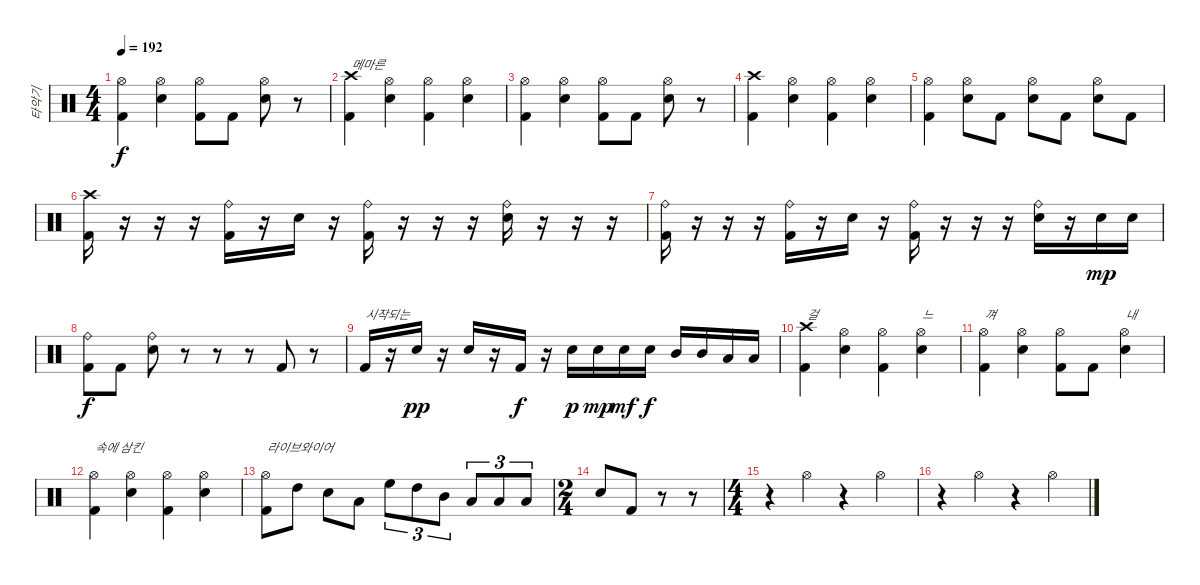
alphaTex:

\track ("타악기" "타악기") {instrument percussion}
\staff {score}
\articulation defaults
\ts (4 4)
\tempo 192
\clef neutral
\ks c
("Hi-Hat (open)" "Kick (hit) 2").4{dy f} ("Hi-Hat (open)" "Snare (hit) 2").4 ("Hi-Hat (open)" "Kick (hit) 2").8 "Kick (hit) 2".8 ("Hi-Hat (open)" "Snare (hit) 2").8 r.8 |
("Crash high (hit)" "Kick (hit) 2").4{txt "메마른"} ("Hi-Hat (open)" "Snare (hit) 2").4 ("Hi-Hat (open)" "Kick (hit) 2").4 ("Hi-Hat (open)" "Snare (hit) 2").4 |
("Hi-Hat (open)" "Kick (hit) 2").4 ("Hi-Hat (open)" "Snare (hit) 2").4 ("Hi-Hat (open)" "Kick (hit) 2").8 "Kick (hit) 2".8 ("Hi-Hat (open)" "Snare (hit) 2").8 r.8 |
("Crash high (hit)" "Kick (hit) 2").4 ("Hi-Hat (open)" "Snare (hit) 2").4 ("Hi-Hat (open)" "Kick (hit) 2").4 ("Hi-Hat (open)" "Snare (hit) 2").4 |
("Hi-Hat (open)" "Kick (hit) 2").4 ("Hi-Hat (open)" "Snare (hit) 2").8 "Kick (hit) 2".8 ("Hi-Hat (open)" "Snare (hit) 2").8 "Kick (hit) 2".8 ("Hi-Hat (open)" "Snare (hit) 2").8 "Kick (hit) 2".8 |
("Crash high (hit)" "Kick (hit) 2").16 r.16 r.16 r.16 ("Ride (bell)" "Kick (hit) 2").16 r.16 "Snare (hit) 2".16 r.16 ("Ride (bell)" "Kick (hit) 2").16 r.16 r.16 r.16 ("Ride (bell)" "Snare (hit) 2").16 r.16 r.16 r.16 |
("Ride (bell)" "Kick (hit) 2").16 r.16 r.16 r.16 ("Ride (bell)" "Kick (hit) 2").16 r.16 "Snare (hit) 2".16 r.16 ("Ride (bell)" "Kick (hit) 2").16 r.16 r.16 r.16 ("Ride (bell)" "Snare (hit) 2").16 r.16 "Snare (hit) 2".16{dy mp} "Snare (hit) 2".16 |
("Ride (bell)" "Kick (hit) 2").8{dy f} "Kick (hit) 2".8 ("Ride (bell)" "Snare (hit) 2").8 r.8 r.8 r.8 "Kick (hit) 2".8 r.8 |
"Kick (hit) 2".16{txt "시작되는"} r.16 "Snare (hit) 2".16{dy pp} r.16 "Snare (hit) 2".16 r.16 "Kick (hit) 2".16{dy f} r.16 "Snare (hit) 2".16{dy p} "Snare (hit) 2".16{dy mp} "Snare (hit) 2".16{dy mf} "Snare (hit) 2".16{dy f} "Mid Tom (hit)".16 "Mid Tom (hit)".16 "Low Tom (hit)".16 "Low Tom (hit)".16 |
("Crash high (hit)" "Kick (hit) 2").4{txt "걸"} ("Hi-Hat (open)" "Snare (hit) 2").4 ("Hi-Hat (open)" "Kick (hit) 2").4 ("Hi-Hat (open)" "Snare (hit) 2").4{txt "느"} |
("Hi-Hat (open)" "Kick (hit) 2").4{txt "껴"} ("Hi-Hat (open)" "Snare (hit) 2").4 ("Hi-Hat (open)" "Kick (hit) 2").8 "Kick (hit) 2".8 ("Hi-Hat (open)" "Snare (hit) 2").4{txt "내"} |
("Hi-Hat (open)" "Kick (hit) 2").4{txt "속에 삼킨"} ("Hi-Hat (open)" "Snare (hit) 2").4 ("Hi-Hat (open)" "Kick (hit) 2").4 ("Hi-Hat (open)" "Snare (hit) 2").4 |
("Hi-Hat (open)" "Kick (hit) 2").8{txt "라이브와이어"} "High Tom (hit)".8 "Snare (hit) 2".8 "Low Tom (hit)".8 "High Floor Tom (hit)".8{tu (3 2)} "High Tom (hit)".8{tu (3 2)} "Mid Tom (hit)".8{tu (3 2)} "Low Tom (hit)".8{tu (3 2)} "Low Tom (hit)".8{tu (3 2)} "Low Tom (hit)".8{tu (3 2)} |
\ts (2 4)
"Snare (hit) 2".8 "Kick (hit) 2".8 r.8 r.8 |
\ts (4 4)
r.4 "Hi-Hat (open)".4 r.4 "Hi-Hat (open)".4 |
r.4 "Hi-Hat (open)".4 r.4 "Hi-Hat (open)".4
